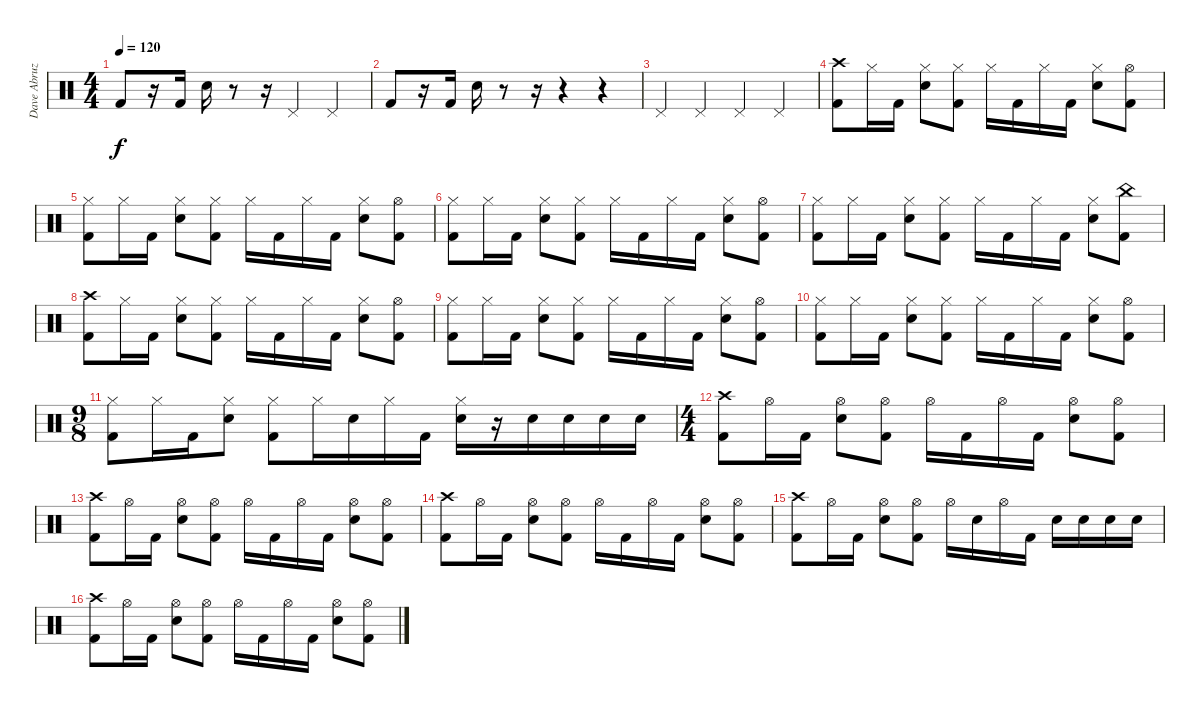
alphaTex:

\track ("Dave Abruzzesse" "Dave Abruz") {instrument percussion}
\staff {score}
\articulation defaults
\ts (4 4)
\tempo 120
\clef neutral
\ks c "Kick (hit) 2".8{dy f}
r.16 "Kick (hit) 2".16 "Electric Snare (hit)".16 r.8 r.16 "Pedal Hi-Hat (hit)".4 "Pedal Hi-Hat (hit)".4 |
"Kick (hit) 2".8 r.16 "Kick (hit) 2".16 "Electric Snare (hit)".16 r.8 r.16 r.4 r.4 |
"Pedal Hi-Hat (hit)".4 "Pedal Hi-Hat (hit)".4 "Pedal Hi-Hat (hit)".4 "Pedal Hi-Hat (hit)".4 |
("Crash high (hit)" "Kick (hit) 2").8 "Hi-Hat (closed)".16 "Kick (hit) 2".16 ("Hi-Hat (closed)" "Electric Snare (hit)").8 ("Hi-Hat (closed)" "Kick (hit) 2").8 "Hi-Hat (closed)".16 "Kick (hit) 2".16 "Hi-Hat (closed)".16 "Kick (hit) 2".16 ("Hi-Hat (closed)" "Electric Snare (hit)").8 ("Hi-Hat (open)" "Kick (hit) 2").8 |
("Hi-Hat (closed)" "Kick (hit) 2").8 "Hi-Hat (closed)".16 "Kick (hit) 2".16 ("Hi-Hat (closed)" "Electric Snare (hit)").8 ("Hi-Hat (closed)" "Kick (hit) 2").8 "Hi-Hat (closed)".16 "Kick (hit) 2".16 "Hi-Hat (closed)".16 "Kick (hit) 2".16 ("Hi-Hat (closed)" "Electric Snare (hit)").8 ("Hi-Hat (open)" "Kick (hit) 2").8 |
("Hi-Hat (closed)" "Kick (hit) 2").8 "Hi-Hat (closed)".16 "Kick (hit) 2".16 ("Hi-Hat (closed)" "Electric Snare (hit)").8 ("Hi-Hat (closed)" "Kick (hit) 2").8 "Hi-Hat (closed)".16 "Kick (hit) 2".16 "Hi-Hat (closed)".16 "Kick (hit) 2".16 ("Hi-Hat (closed)" "Electric Snare (hit)").8 ("Hi-Hat (open)" "Kick (hit) 2").8 |
("Hi-Hat (closed)" "Kick (hit) 2").8 "Hi-Hat (closed)".16 "Kick (hit) 2".16 ("Hi-Hat (closed)" "Electric Snare (hit)").8 ("Hi-Hat (closed)" "Kick (hit) 2").8 "Hi-Hat (closed)".16 "Kick (hit) 2".16 "Hi-Hat (closed)".16 "Kick (hit) 2".16 ("Hi-Hat (closed)" "Electric Snare (hit)").8 ("China (hit)" "Kick (hit) 2").8 |
("Crash high (hit)" "Kick (hit) 2").8 "Hi-Hat (closed)".16 "Kick (hit) 2".16 ("Hi-Hat (closed)" "Electric Snare (hit)").8 ("Hi-Hat (closed)" "Kick (hit) 2").8 "Hi-Hat (closed)".16 "Kick (hit) 2".16 "Hi-Hat (closed)".16 "Kick (hit) 2".16 ("Hi-Hat (closed)" "Electric Snare (hit)").8 ("Hi-Hat (open)" "Kick (hit) 2").8 |
("Hi-Hat (closed)" "Kick (hit) 2").8 "Hi-Hat (closed)".16 "Kick (hit) 2".16 ("Hi-Hat (closed)" "Electric Snare (hit)").8 ("Hi-Hat (closed)" "Kick (hit) 2").8 "Hi-Hat (closed)".16 "Kick (hit) 2".16 "Hi-Hat (closed)".16 "Kick (hit) 2".16 ("Hi-Hat (closed)" "Electric Snare (hit)").8 ("Hi-Hat (open)" "Kick (hit) 2").8 |
("Hi-Hat (closed)" "Kick (hit) 2").8 "Hi-Hat (closed)".16 "Kick (hit) 2".16 ("Hi-Hat (closed)" "Electric Snare (hit)").8 ("Hi-Hat (closed)" "Kick (hit) 2").8 "Hi-Hat (closed)".16 "Kick (hit) 2".16 "Hi-Hat (closed)".16 "Kick (hit) 2".16 ("Hi-Hat (closed)" "Electric Snare (hit)").8 ("Hi-Hat (open)" "Kick (hit) 2").8 |
\ts (9 8)
("Hi-Hat (closed)" "Kick (hit) 2").8 "Hi-Hat (closed)".16 "Kick (hit) 2".16 ("Hi-Hat (closed)" "Electric Snare (hit)").8 ("Hi-Hat (closed)" "Kick (hit) 2").8 "Hi-Hat (closed)".16 "Electric Snare (hit)".16 "Hi-Hat (closed)".16 "Kick (hit) 2".16 ("Hi-Hat (closed)" "Electric Snare (hit)").16 r.16 "Electric Snare (hit)".16 "Electric Snare (hit)".16 "Electric Snare (hit)".16 "Electric Snare (hit)".16 |
\ts (4 4)
("Crash high (hit)" "Kick (hit) 2").8 "Hi-Hat (open)".16 "Kick (hit) 2".16 ("Hi-Hat (open)" "Electric Snare (hit)").8 ("Hi-Hat (open)" "Kick (hit) 2").8 "Hi-Hat (open)".16 "Kick (hit) 2".16 "Hi-Hat (open)".16 "Kick (hit) 2".16 ("Hi-Hat (open)" "Electric Snare (hit)").8 ("Hi-Hat (open)" "Kick (hit) 2").8 |
("Crash high (hit)" "Kick (hit) 2").8 "Hi-Hat (open)".16 "Kick (hit) 2".16 ("Hi-Hat (open)" "Electric Snare (hit)").8 ("Hi-Hat (open)" "Kick (hit) 2").8 "Hi-Hat (open)".16 "Kick (hit) 2".16 "Hi-Hat (open)".16 "Kick (hit) 2".16 ("Hi-Hat (open)" "Electric Snare (hit)").8 ("Hi-Hat (open)" "Kick (hit) 2").8 |
("Crash high (hit)" "Kick (hit) 2").8 "Hi-Hat (open)".16 "Kick (hit) 2".16 ("Hi-Hat (open)" "Electric Snare (hit)").8 ("Hi-Hat (open)" "Kick (hit) 2").8 "Hi-Hat (open)".16 "Kick (hit) 2".16 "Hi-Hat (open)".16 "Kick (hit) 2".16 ("Hi-Hat (open)" "Electric Snare (hit)").8 ("Hi-Hat (open)" "Kick (hit) 2").8 |
("Crash high (hit)" "Kick (hit) 2").8 "Hi-Hat (open)".16 "Kick (hit) 2".16 ("Hi-Hat (open)" "Electric Snare (hit)").8 ("Hi-Hat (open)" "Kick (hit) 2").8 "Hi-Hat (open)".16 "Electric Snare (hit)".16 "Hi-Hat (open)".16 "Kick (hit) 2".16 "Electric Snare (hit)".16 "Electric Snare (hit)".16 "Electric Snare (hit)".16 "Electric Snare (hit)".16 |
("Crash high (hit)" "Kick (hit) 2").8 "Hi-Hat (open)".16 "Kick (hit) 2".16 ("Hi-Hat (open)" "Electric Snare (hit)").8 ("Hi-Hat (open)" "Kick (hit) 2").8 "Hi-Hat (open)".16 "Kick (hit) 2".16 "Hi-Hat (open)".16 "Kick (hit) 2".16 ("Hi-Hat (open)" "Electric Snare (hit)").8 ("Hi-Hat (open)" "Kick (hit) 2").8
